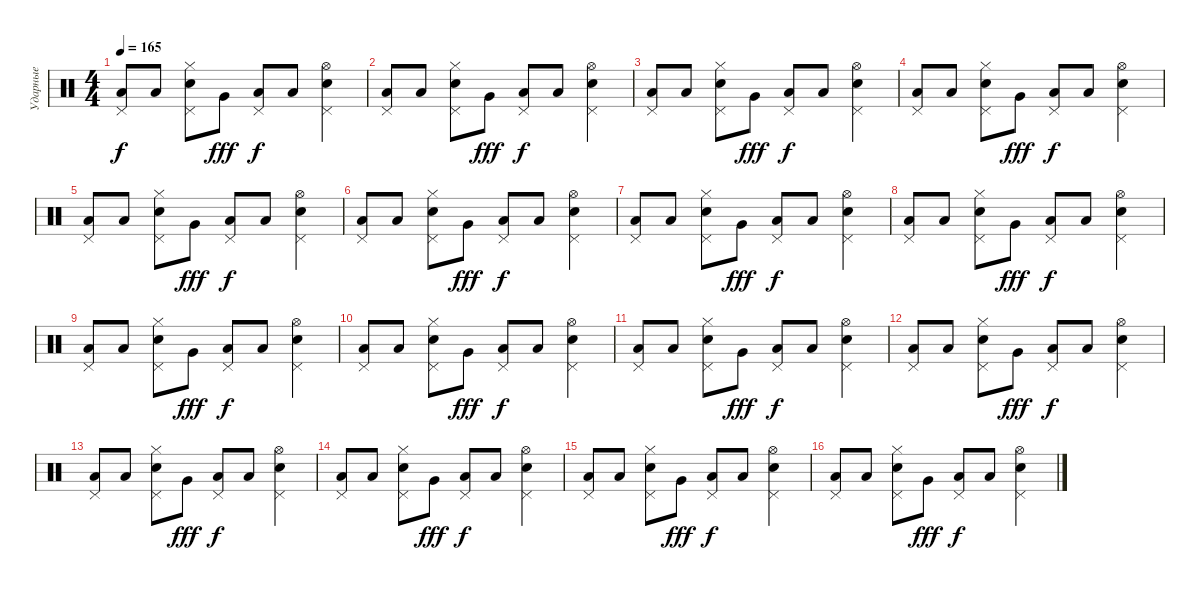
\track ("Ударные" "Ударные") {instrument percussion}
\staff {score}
\articulation defaults
\ts (4 4)
\tempo 165
\clef neutral
\ks c
("Pedal Hi-Hat (hit)" "Low Floor Tom (hit)").8{dy f} "Low Floor Tom (hit)".8 ("Pedal Hi-Hat (hit)" "Electric Snare (hit)" "Hi-Hat (closed)").8 "Very Low Tom (hit)".8{dy fff} ("Pedal Hi-Hat (hit)" "Low Floor Tom (hit)").8{dy f} "Low Floor Tom (hit)".8 ("Electric Snare (hit)" "Pedal Hi-Hat (hit)" "Hi-Hat (open)").4 |
("Pedal Hi-Hat (hit)" "Low Floor Tom (hit)").8 "Low Floor Tom (hit)".8 ("Pedal Hi-Hat (hit)" "Electric Snare (hit)" "Hi-Hat (closed)").8 "Very Low Tom (hit)".8{dy fff} ("Pedal Hi-Hat (hit)" "Low Floor Tom (hit)").8{dy f} "Low Floor Tom (hit)".8 ("Pedal Hi-Hat (hit)" "Electric Snare (hit)" "Hi-Hat (open)").4 |
("Pedal Hi-Hat (hit)" "Low Floor Tom (hit)").8 "Low Floor Tom (hit)".8 ("Pedal Hi-Hat (hit)" "Electric Snare (hit)" "Hi-Hat (closed)").8 "Very Low Tom (hit)".8{dy fff} ("Pedal Hi-Hat (hit)" "Low Floor Tom (hit)").8{dy f} "Low Floor Tom (hit)".8 ("Pedal Hi-Hat (hit)" "Electric Snare (hit)" "Hi-Hat (open)").4 |
("Pedal Hi-Hat (hit)" "Low Floor Tom (hit)").8 "Low Floor Tom (hit)".8 ("Pedal Hi-Hat (hit)" "Electric Snare (hit)" "Hi-Hat (closed)").8 "Very Low Tom (hit)".8{dy fff} ("Pedal Hi-Hat (hit)" "Low Floor Tom (hit)").8{dy f} "Low Floor Tom (hit)".8 ("Pedal Hi-Hat (hit)" "Electric Snare (hit)" "Hi-Hat (open)").4 |
("Pedal Hi-Hat (hit)" "Low Floor Tom (hit)").8 "Low Floor Tom (hit)".8 ("Pedal Hi-Hat (hit)" "Electric Snare (hit)" "Hi-Hat (closed)").8 "Very Low Tom (hit)".8{dy fff} ("Pedal Hi-Hat (hit)" "Low Floor Tom (hit)").8{dy f} "Low Floor Tom (hit)".8 ("Pedal Hi-Hat (hit)" "Electric Snare (hit)" "Hi-Hat (open)").4 |
("Pedal Hi-Hat (hit)" "Low Floor Tom (hit)").8 "Low Floor Tom (hit)".8 ("Pedal Hi-Hat (hit)" "Electric Snare (hit)" "Hi-Hat (closed)").8 "Very Low Tom (hit)".8{dy fff} ("Pedal Hi-Hat (hit)" "Low Floor Tom (hit)").8{dy f} "Low Floor Tom (hit)".8 ("Pedal Hi-Hat (hit)" "Electric Snare (hit)" "Hi-Hat (open)").4 |
("Pedal Hi-Hat (hit)" "Low Floor Tom (hit)").8 "Low Floor Tom (hit)".8 ("Pedal Hi-Hat (hit)" "Electric Snare (hit)" "Hi-Hat (closed)").8 "Very Low Tom (hit)".8{dy fff} ("Pedal Hi-Hat (hit)" "Low Floor Tom (hit)").8{dy f} "Low Floor Tom (hit)".8 ("Electric Snare (hit)" "Pedal Hi-Hat (hit)" "Hi-Hat (open)").4 |
("Pedal Hi-Hat (hit)" "Low Floor Tom (hit)").8 "Low Floor Tom (hit)".8 ("Pedal Hi-Hat (hit)" "Electric Snare (hit)" "Hi-Hat (closed)").8 "Very Low Tom (hit)".8{dy fff} ("Pedal Hi-Hat (hit)" "Low Floor Tom (hit)").8{dy f} "Low Floor Tom (hit)".8 ("Pedal Hi-Hat (hit)" "Electric Snare (hit)" "Hi-Hat (open)").4 |
("Pedal Hi-Hat (hit)" "Low Floor Tom (hit)").8 "Low Floor Tom (hit)".8 ("Pedal Hi-Hat (hit)" "Electric Snare (hit)" "Hi-Hat (closed)").8 "Very Low Tom (hit)".8{dy fff} ("Pedal Hi-Hat (hit)" "Low Floor Tom (hit)").8{dy f} "Low Floor Tom (hit)".8 ("Pedal Hi-Hat (hit)" "Electric Snare (hit)" "Hi-Hat (open)").4 |
("Pedal Hi-Hat (hit)" "Low Floor Tom (hit)").8 "Low Floor Tom (hit)".8 ("Pedal Hi-Hat (hit)" "Electric Snare (hit)" "Hi-Hat (closed)").8 "Very Low Tom (hit)".8{dy fff} ("Pedal Hi-Hat (hit)" "Low Floor Tom (hit)").8{dy f} "Low Floor Tom (hit)".8 ("Pedal Hi-Hat (hit)" "Electric Snare (hit)" "Hi-Hat (open)").4 |
("Pedal Hi-Hat (hit)" "Low Floor Tom (hit)").8 "Low Floor Tom (hit)".8 ("Pedal Hi-Hat (hit)" "Electric Snare (hit)" "Hi-Hat (closed)").8 "Very Low Tom (hit)".8{dy fff} ("Pedal Hi-Hat (hit)" "Low Floor Tom (hit)").8{dy f} "Low Floor Tom (hit)".8 ("Electric Snare (hit)" "Pedal Hi-Hat (hit)" "Hi-Hat (open)").4 |
("Pedal Hi-Hat (hit)" "Low Floor Tom (hit)").8 "Low Floor Tom (hit)".8 ("Pedal Hi-Hat (hit)" "Electric Snare (hit)" "Hi-Hat (closed)").8 "Very Low Tom (hit)".8{dy fff} ("Pedal Hi-Hat (hit)" "Low Floor Tom (hit)").8{dy f} "Low Floor Tom (hit)".8 ("Electric Snare (hit)" "Pedal Hi-Hat (hit)" "Hi-Hat (open)").4 |
("Pedal Hi-Hat (hit)" "Low Floor Tom (hit)").8 "Low Floor Tom (hit)".8 ("Pedal Hi-Hat (hit)" "Electric Snare (hit)" "Hi-Hat (closed)").8 "Very Low Tom (hit)".8{dy fff} ("Pedal Hi-Hat (hit)" "Low Floor Tom (hit)").8{dy f} "Low Floor Tom (hit)".8 ("Electric Snare (hit)" "Pedal Hi-Hat (hit)" "Hi-Hat (open)").4 |
("Pedal Hi-Hat (hit)" "Low Floor Tom (hit)").8 "Low Floor Tom (hit)".8 ("Pedal Hi-Hat (hit)" "Electric Snare (hit)" "Hi-Hat (closed)").8 "Very Low Tom (hit)".8{dy fff} ("Pedal Hi-Hat (hit)" "Low Floor Tom (hit)").8{dy f} "Low Floor Tom (hit)".8 ("Pedal Hi-Hat (hit)" "Electric Snare (hit)" "Hi-Hat (open)").4 |
("Pedal Hi-Hat (hit)" "Low Floor Tom (hit)").8 "Low Floor Tom (hit)".8 ("Pedal Hi-Hat (hit)" "Electric Snare (hit)" "Hi-Hat (closed)").8 "Very Low Tom (hit)".8{dy fff} ("Pedal Hi-Hat (hit)" "Low Floor Tom (hit)").8{dy f} "Low Floor Tom (hit)".8 ("Pedal Hi-Hat (hit)" "Electric Snare (hit)" "Hi-Hat (open)").4 |
("Pedal Hi-Hat (hit)" "Low Floor Tom (hit)").8 "Low Floor Tom (hit)".8 ("Pedal Hi-Hat (hit)" "Electric Snare (hit)" "Hi-Hat (closed)").8 "Very Low Tom (hit)".8{dy fff} ("Pedal Hi-Hat (hit)" "Low Floor Tom (hit)").8{dy f} "Low Floor Tom (hit)".8 ("Electric Snare (hit)" "Pedal Hi-Hat (hit)" "Hi-Hat (open)").4
